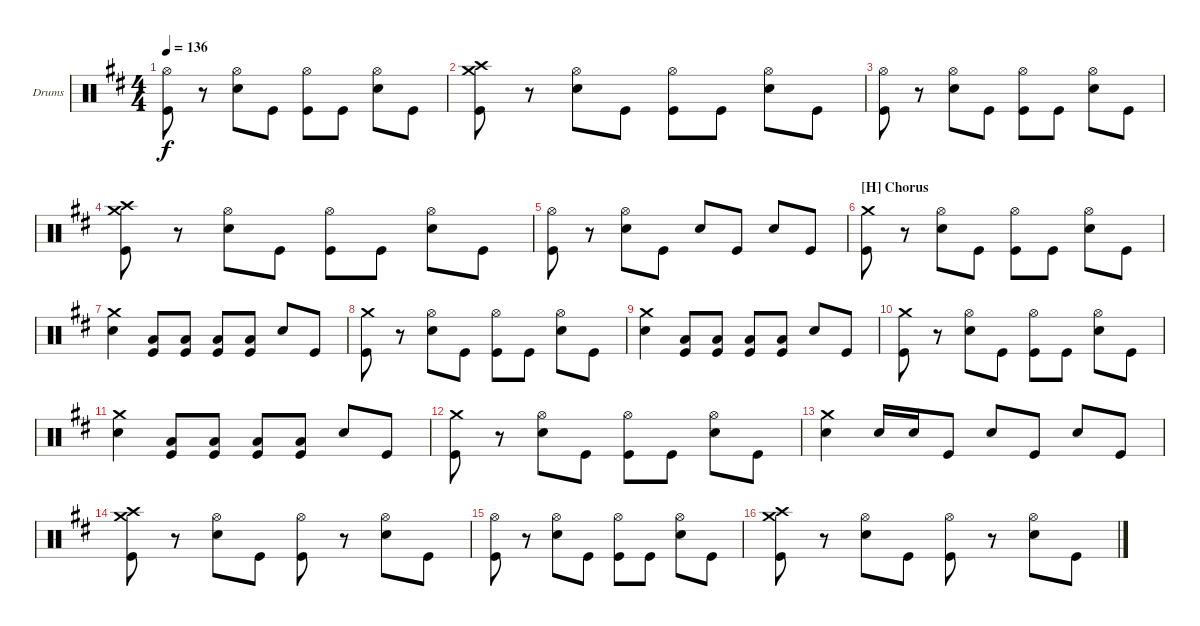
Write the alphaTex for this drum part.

\defaultSystemsLayout 4
\bracketExtendMode groupsimilarinstruments
\firstSystemTrackNameOrientation horizontal
\otherSystemsTrackNameOrientation horizontal
\track ("Drumkit" "Drums") {instrument percussion}
\staff {score}
\articulation defaults
\ts (4 4)
\tempo 136
\clef neutral
\scale
1.05044
\ks d
("Hi-Hat (open)" "Kick (hit)").8{dy f} r.8 ("Hi-Hat (open)" "Snare (hit) 2").8 "Kick (hit)".8 ("Hi-Hat (open)" "Kick (hit)").8 "Kick (hit)".8 ("Hi-Hat (open)" "Snare (hit) 2").8 "Kick (hit)".8 |
\scale
0.949559 ("Crash high (hit)" "Crash medium (hit)" "Kick (hit)").8 r.8 ("Hi-Hat (open)" "Snare (hit) 2").8 "Kick (hit)".8 ("Hi-Hat (open)" "Kick (hit)").8 "Kick (hit)".8 ("Hi-Hat (open)" "Snare (hit) 2").8 "Kick (hit)".8 |
\scale
1.05044 ("Hi-Hat (open)" "Kick (hit)").8 r.8 ("Hi-Hat (open)" "Snare (hit) 2").8 "Kick (hit)".8 ("Hi-Hat (open)" "Kick (hit)").8 "Kick (hit)".8 ("Hi-Hat (open)" "Snare (hit) 2").8 "Kick (hit)".8 |
\scale
0.949559 ("Crash high (hit)" "Crash medium (hit)" "Kick (hit)").8 r.8 ("Hi-Hat (open)" "Snare (hit) 2").8 "Kick (hit)".8 ("Hi-Hat (open)" "Kick (hit)").8 "Kick (hit)".8 ("Hi-Hat (open)" "Snare (hit) 2").8 "Kick (hit)".8 |
\scale
1.05044 ("Hi-Hat (open)" "Kick (hit)").8 r.8 ("Hi-Hat (open)" "Snare (hit) 2").8 "Kick (hit)".8 "Snare (hit) 2".8 "Kick (hit)".8 "Snare (hit) 2".8 "Kick (hit)".8 |
\section ("H" "Chorus")
\scale
0.949559 ("Crash medium (hit)" "Kick (hit)").8 r.8 ("Hi-Hat (open)" "Snare (hit) 2").8 "Kick (hit)".8 ("Hi-Hat (open)" "Kick (hit)").8 "Kick (hit)".8 ("Hi-Hat (open)" "Snare (hit) 2").8 "Kick (hit)".8 |
\scale
1.05044 ("Crash medium (hit)" "Snare (hit) 2").4 ("Low Tom (hit)" "Kick (hit)").8 ("Low Tom (hit)" "Kick (hit)").8 ("Low Tom (hit)" "Kick (hit)").8 ("Low Tom (hit)" "Kick (hit)").8 "Snare (hit) 2".8 "Kick (hit)".8 |
\scale
0.949559 ("Crash medium (hit)" "Kick (hit)").8 r.8 ("Hi-Hat (open)" "Snare (hit) 2").8 "Kick (hit)".8 ("Hi-Hat (open)" "Kick (hit)").8 "Kick (hit)".8 ("Hi-Hat (open)" "Snare (hit) 2").8 "Kick (hit)".8 |
\scale
1.05044 ("Crash medium (hit)" "Snare (hit) 2").4 ("Low Tom (hit)" "Kick (hit)").8 ("Low Tom (hit)" "Kick (hit)").8 ("Low Tom (hit)" "Kick (hit)").8 ("Low Tom (hit)" "Kick (hit)").8 "Snare (hit) 2".8 "Kick (hit)".8 |
\scale
0.949559 ("Crash medium (hit)" "Kick (hit)").8 r.8 ("Hi-Hat (open)" "Snare (hit) 2").8 "Kick (hit)".8 ("Hi-Hat (open)" "Kick (hit)").8 "Kick (hit)".8 ("Hi-Hat (open)" "Snare (hit) 2").8 "Kick (hit)".8 |
\scale
1.05044 ("Crash medium (hit)" "Snare (hit) 2").4 ("Low Tom (hit)" "Kick (hit)").8 ("Low Tom (hit)" "Kick (hit)").8 ("Low Tom (hit)" "Kick (hit)").8 ("Low Tom (hit)" "Kick (hit)").8 "Snare (hit) 2".8 "Kick (hit)".8 |
\scale
0.949559 ("Crash medium (hit)" "Kick (hit)").8 r.8 ("Hi-Hat (open)" "Snare (hit) 2").8 "Kick (hit)".8 ("Hi-Hat (open)" "Kick (hit)").8 "Kick (hit)".8 ("Hi-Hat (open)" "Snare (hit) 2").8 "Kick (hit)".8 |
\scale
1.05044 ("Crash medium (hit)" "Snare (hit) 2").4 "Snare (hit) 2".16 "Snare (hit) 2".16 "Kick (hit)".8 "Snare (hit) 2".8 "Kick (hit)".8 "Snare (hit) 2".8 "Kick (hit)".8 |
\scale
0.949559 ("Crash high (hit)" "Crash medium (hit)" "Kick (hit)").8 r.8 ("Hi-Hat (open)" "Snare (hit) 2").8 "Kick (hit)".8 ("Hi-Hat (open)" "Kick (hit)").8 r.8 ("Hi-Hat (open)" "Snare (hit) 2").8 "Kick (hit)".8 |
\scale
1.05044 ("Hi-Hat (open)" "Kick (hit)").8 r.8 ("Hi-Hat (open)" "Snare (hit) 2").8 "Kick (hit)".8 ("Hi-Hat (open)" "Kick (hit)").8 "Kick (hit)".8 ("Hi-Hat (open)" "Snare (hit) 2").8 "Kick (hit)".8 |
\scale
0.949559 ("Crash high (hit)" "Crash medium (hit)" "Kick (hit)").8 r.8 ("Hi-Hat (open)" "Snare (hit) 2").8 "Kick (hit)".8 ("Hi-Hat (open)" "Kick (hit)").8 r.8 ("Hi-Hat (open)" "Snare (hit) 2").8 "Kick (hit)".8
